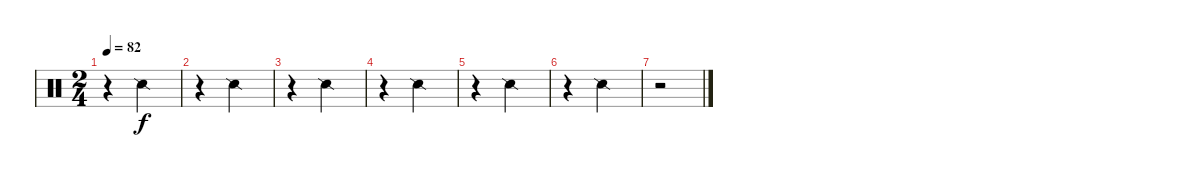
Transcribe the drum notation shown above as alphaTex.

\track "" {instrument percussion}
\staff {score}
\articulation defaults
\ts (2 4)
\tempo 82
\clef neutral
\ks c
r.4{dy f} "Snare (side stick) 2".4 |
r.4 "Snare (side stick) 2".4 |
r.4 "Snare (side stick) 2".4 |
r.4 "Snare (side stick) 2".4 |
r.4 "Snare (side stick) 2".4 |
r.4 "Snare (side stick) 2".4 |
r.2
